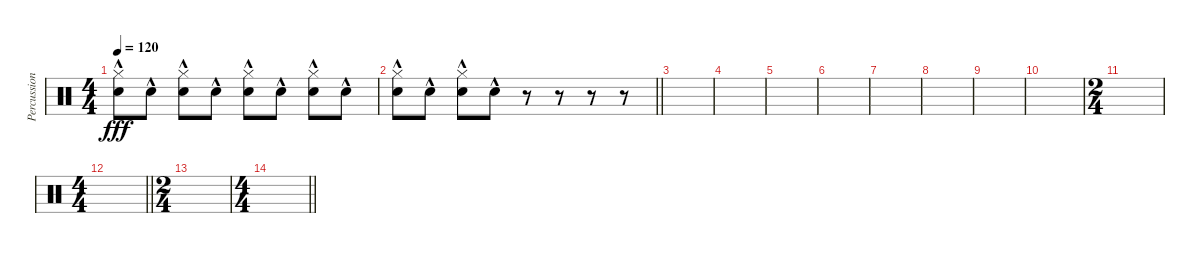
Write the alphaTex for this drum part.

\track ("Percussion" "Percussion") {instrument percussion}
\staff {score}
\articulation defaults
\ts (4 4)
\tempo 120
\clef neutral
\ks c
("Hi-Hat (closed)" "Snare (hit) 2"{hac}).8{dy fff} "Snare (hit) 2"{hac}.8 ("Hi-Hat (closed)" "Snare (hit) 2"{hac}).8 "Snare (hit) 2"{hac}.8 ("Hi-Hat (closed)" "Snare (hit) 2"{hac}).8 "Snare (hit) 2"{hac}.8 ("Hi-Hat (closed)" "Snare (hit) 2"{hac}).8 "Snare (hit) 2"{hac}.8 |
\barLineRight lightlight
("Hi-Hat (closed)" "Snare (hit) 2"{hac}).8 "Snare (hit) 2"{hac}.8 ("Hi-Hat (closed)" "Snare (hit) 2"{hac}).8 "Snare (hit) 2"{hac}.8 r.8 r.8 r.8 r.8 |
|
|
|
|
|
|
|
|
\ts (2 4)
|
\ts (4 4)
\barLineRight lightlight
|
\ts (2 4)
|
\ts (4 4)
\barLineRight lightlight
